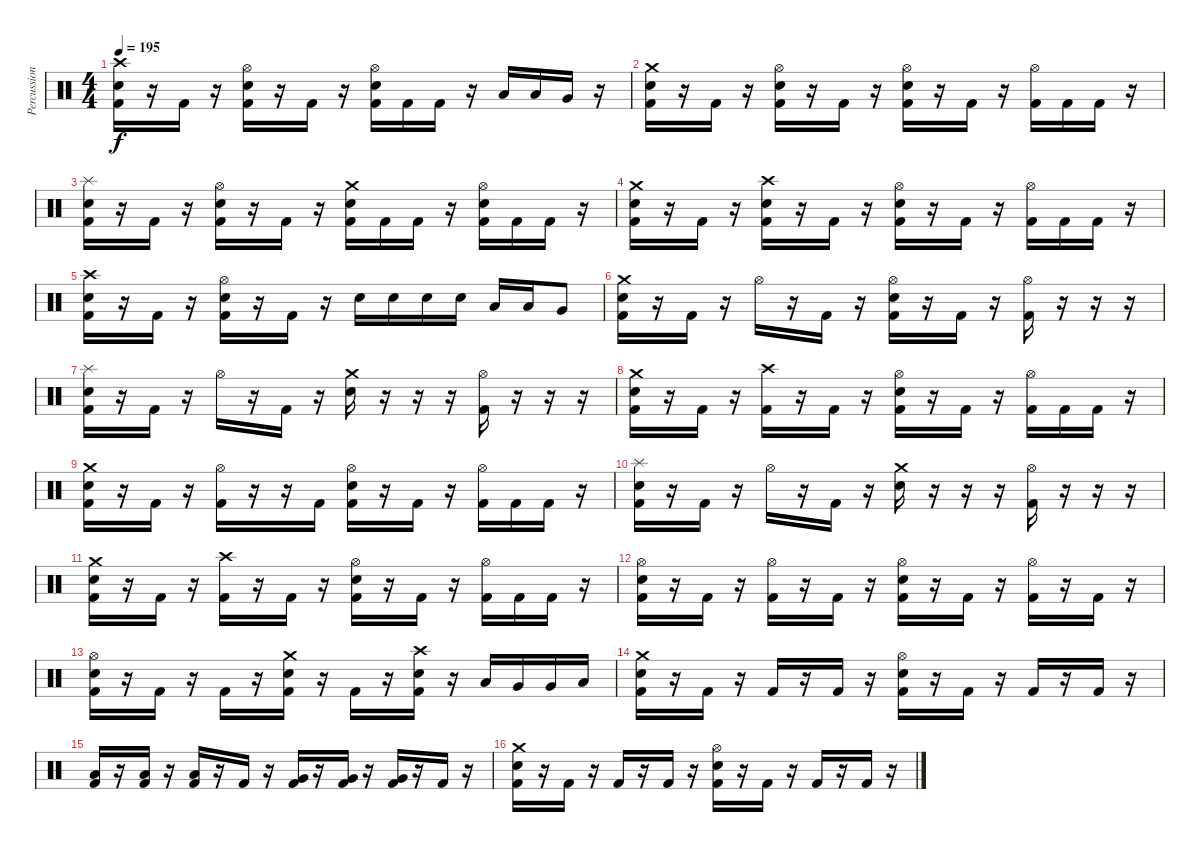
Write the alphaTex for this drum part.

\track ("Percussion" "Percussion") {instrument percussion}
\staff {score}
\articulation defaults
\ts (4 4)
\tempo 195
\clef neutral
\ks c
("Crash high (hit)" "Electric Snare (hit)" "Kick (hit) 2").16{dy f} r.16 "Kick (hit) 2".16 r.16 ("Hi-Hat (open)" "Electric Snare (hit)" "Kick (hit) 2").16 r.16 "Kick (hit) 2".16 r.16 ("Hi-Hat (open)" "Electric Snare (hit)" "Kick (hit) 2").16 "Kick (hit) 2".16 "Kick (hit) 2".16 r.16 "Low Tom (hit)".16 "Low Tom (hit)".16 "Very Low Tom (hit)".16 r.16 |
("Crash medium (hit)" "Electric Snare (hit)" "Kick (hit) 2").16 r.16 "Kick (hit) 2".16 r.16 ("Hi-Hat (open)" "Electric Snare (hit)" "Kick (hit) 2").16 r.16 "Kick (hit) 2".16 r.16 ("Hi-Hat (open)" "Electric Snare (hit)" "Kick (hit) 2").16 r.16 "Kick (hit) 2".16 r.16 ("Hi-Hat (open)" "Kick (hit) 2").16 "Kick (hit) 2".16 "Kick (hit) 2".16 r.16 |
("Splash (hit)" "Electric Snare (hit)" "Kick (hit) 2").16 r.16 "Kick (hit) 2".16 r.16 ("Hi-Hat (open)" "Electric Snare (hit)" "Kick (hit) 2").16 r.16 "Kick (hit) 2".16 r.16 ("Crash medium (hit)" "Electric Snare (hit)" "Kick (hit) 2").16 "Kick (hit) 2".16 "Kick (hit) 2".16 r.16 ("Hi-Hat (open)" "Electric Snare (hit)" "Kick (hit) 2").16 "Kick (hit) 2".16 "Kick (hit) 2".16 r.16 |
("Crash medium (hit)" "Electric Snare (hit)" "Kick (hit) 2").16 r.16 "Kick (hit) 2".16 r.16 ("Crash high (hit)" "Electric Snare (hit)" "Kick (hit) 2").16 r.16 "Kick (hit) 2".16 r.16 ("Hi-Hat (open)" "Electric Snare (hit)" "Kick (hit) 2").16 r.16 "Kick (hit) 2".16 r.16 ("Hi-Hat (open)" "Kick (hit) 2").16 "Kick (hit) 2".16 "Kick (hit) 2".16 r.16 |
("Crash high (hit)" "Electric Snare (hit)" "Kick (hit) 2").16 r.16 "Kick (hit) 2".16 r.16 ("Hi-Hat (open)" "Electric Snare (hit)" "Kick (hit) 2").16 r.16 "Kick (hit) 2".16 r.16 "Electric Snare (hit)".16 "Electric Snare (hit)".16 "Electric Snare (hit)".16 "Electric Snare (hit)".16 "Low Tom (hit)".16 "Low Tom (hit)".16 "Very Low Tom (hit)".8 |
("Crash medium (hit)" "Electric Snare (hit)" "Kick (hit) 2").16 r.16 "Kick (hit) 2".16 r.16 "Hi-Hat (open)".16 r.16 "Kick (hit) 2".16 r.16 ("Hi-Hat (open)" "Electric Snare (hit)" "Kick (hit) 2").16 r.16 "Kick (hit) 2".16 r.16 ("Hi-Hat (open)" "Kick (hit) 2").16 r.16 r.16 r.16 |
("Splash (hit)" "Electric Snare (hit)" "Kick (hit) 2").16 r.16 "Kick (hit) 2".16 r.16 "Hi-Hat (open)".16 r.16 "Kick (hit) 2".16 r.16 ("Crash medium (hit)" "Electric Snare (hit)").16 r.16 r.16 r.16 ("Hi-Hat (open)" "Kick (hit) 2").16 r.16 r.16 r.16 |
("Crash medium (hit)" "Electric Snare (hit)" "Kick (hit) 2").16 r.16 "Kick (hit) 2".16 r.16 ("Crash high (hit)" "Kick (hit) 2").16 r.16 "Kick (hit) 2".16 r.16 ("Hi-Hat (open)" "Electric Snare (hit)" "Kick (hit) 2").16 r.16 "Kick (hit) 2".16 r.16 ("Hi-Hat (open)" "Kick (hit) 2").16 "Kick (hit) 2".16 "Kick (hit) 2".16 r.16 |
("Crash medium (hit)" "Electric Snare (hit)" "Kick (hit) 2").16 r.16 "Kick (hit) 2".16 r.16 ("Hi-Hat (open)" "Kick (hit) 2").16 r.16 r.16 "Kick (hit) 2".16 ("Hi-Hat (open)" "Electric Snare (hit)" "Kick (hit) 2").16 r.16 "Kick (hit) 2".16 r.16 ("Hi-Hat (open)" "Kick (hit) 2").16 "Kick (hit) 2".16 "Kick (hit) 2".16 r.16 |
("Splash (hit)" "Electric Snare (hit)" "Kick (hit) 2").16 r.16 "Kick (hit) 2".16 r.16 "Hi-Hat (open)".16 r.16 "Kick (hit) 2".16 r.16 ("Crash medium (hit)" "Electric Snare (hit)").16 r.16 r.16 r.16 ("Hi-Hat (open)" "Kick (hit) 2").16 r.16 r.16 r.16 |
("Crash medium (hit)" "Electric Snare (hit)" "Kick (hit) 2").16 r.16 "Kick (hit) 2".16 r.16 ("Crash high (hit)" "Kick (hit) 2").16 r.16 "Kick (hit) 2".16 r.16 ("Hi-Hat (open)" "Electric Snare (hit)" "Kick (hit) 2").16 r.16 "Kick (hit) 2".16 r.16 ("Hi-Hat (open)" "Kick (hit) 2").16 "Kick (hit) 2".16 "Kick (hit) 2".16 r.16 |
("Hi-Hat (open)" "Electric Snare (hit)" "Kick (hit) 2").16 r.16 "Kick (hit) 2".16 r.16 ("Hi-Hat (open)" "Kick (hit) 2").16 r.16 "Kick (hit) 2".16 r.16 ("Hi-Hat (open)" "Electric Snare (hit)" "Kick (hit) 2").16 r.16 "Kick (hit) 2".16 r.16 ("Hi-Hat (open)" "Kick (hit) 2").16 r.16 "Kick (hit) 2".16 r.16 |
("Hi-Hat (open)" "Electric Snare (hit)" "Kick (hit) 2").16 r.16 "Kick (hit) 2".16 r.16 "Kick (hit) 2".16 r.16 ("Crash medium (hit)" "Electric Snare (hit)" "Kick (hit) 2").16 r.16 "Kick (hit) 2".16 r.16 ("Crash high (hit)" "Electric Snare (hit)" "Kick (hit) 2").16 r.16 "Low Tom (hit)".16 "Very Low Tom (hit)".16 "Very Low Tom (hit)".16 "Low Floor Tom (hit)".16 |
("Crash medium (hit)" "Electric Snare (hit)" "Kick (hit) 2").16 r.16 "Kick (hit) 2".16 r.16 "Kick (hit) 2".16 r.16 "Kick (hit) 2".16 r.16 ("Hi-Hat (open)" "Electric Snare (hit)" "Kick (hit) 2").16 r.16 "Kick (hit) 2".16 r.16 "Kick (hit) 2".16 r.16 "Kick (hit) 2".16 r.16 |
("Low Tom (hit)" "Kick (hit) 2").16 r.16 ("Low Tom (hit)" "Kick (hit) 2").16 r.16 ("Low Tom (hit)" "Kick (hit) 2").16 r.16 "Kick (hit) 2".16 r.16 ("Very Low Tom (hit)" "Kick (hit) 2").16 r.16 ("Very Low Tom (hit)" "Kick (hit) 2").16 r.16 ("Very Low Tom (hit)" "Kick (hit) 2").16 r.16 "Kick (hit) 2".16 r.16 |
("Crash medium (hit)" "Electric Snare (hit)" "Kick (hit) 2").16 r.16 "Kick (hit) 2".16 r.16 "Kick (hit) 2".16 r.16 "Kick (hit) 2".16 r.16 ("Hi-Hat (open)" "Electric Snare (hit)" "Kick (hit) 2").16 r.16 "Kick (hit) 2".16 r.16 "Kick (hit) 2".16 r.16 "Kick (hit) 2".16 r.16
